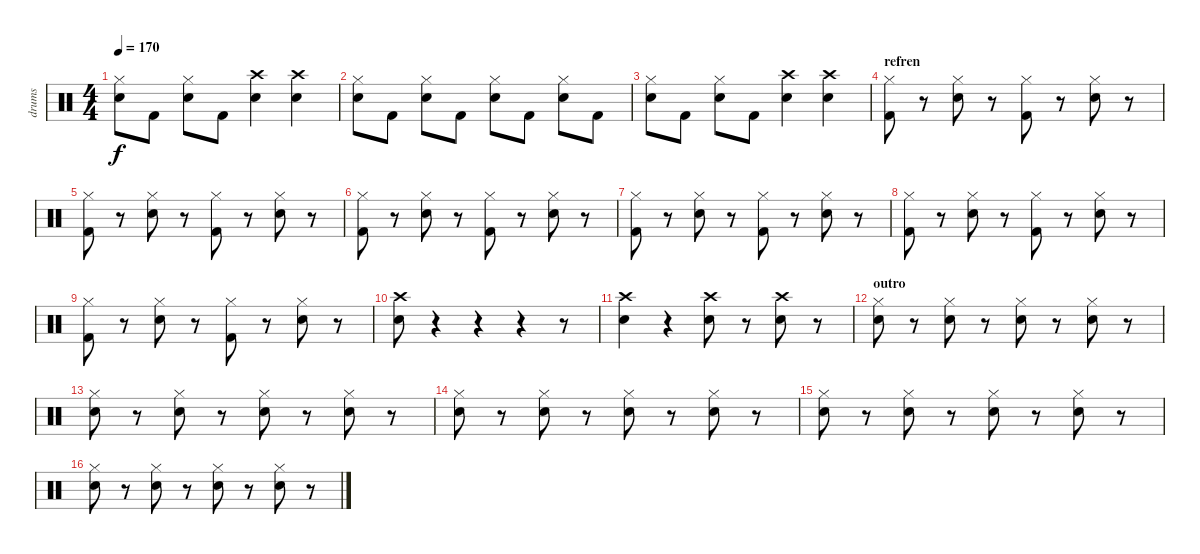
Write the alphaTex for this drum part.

\track ("drums" "drums") {instrument percussion}
\staff {score}
\articulation defaults
\ts (4 4)
\tempo 170
\clef neutral
\ks c
("Hi-Hat (closed)" "Snare (hit) 2").8{dy f} "Kick (hit) 2".8 ("Hi-Hat (closed)" "Snare (hit) 2").8 "Kick (hit) 2".8 ("Crash high (hit)" "Snare (hit) 2").4 ("Crash high (hit)" "Snare (hit) 2").4 |
("Hi-Hat (closed)" "Snare (hit) 2").8 "Kick (hit) 2".8 ("Hi-Hat (closed)" "Snare (hit) 2").8 "Kick (hit) 2".8 ("Hi-Hat (closed)" "Snare (hit) 2").8 "Kick (hit) 2".8 ("Hi-Hat (closed)" "Snare (hit) 2").8 "Kick (hit) 2".8 |
("Hi-Hat (closed)" "Snare (hit) 2").8 "Kick (hit) 2".8 ("Hi-Hat (closed)" "Snare (hit) 2").8 "Kick (hit) 2".8 ("Crash high (hit)" "Snare (hit) 2").4 ("Crash high (hit)" "Snare (hit) 2").4 |
\section ("" "refren")
("Hi-Hat (closed)" "Kick (hit) 2").8 r.8 ("Hi-Hat (closed)" "Snare (hit) 2").8 r.8 ("Hi-Hat (closed)" "Kick (hit) 2").8 r.8 ("Hi-Hat (closed)" "Snare (hit) 2").8 r.8 |
("Hi-Hat (closed)" "Kick (hit) 2").8 r.8 ("Hi-Hat (closed)" "Snare (hit) 2").8 r.8 ("Hi-Hat (closed)" "Kick (hit) 2").8 r.8 ("Hi-Hat (closed)" "Snare (hit) 2").8 r.8 |
("Hi-Hat (closed)" "Kick (hit) 2").8 r.8 ("Hi-Hat (closed)" "Snare (hit) 2").8 r.8 ("Hi-Hat (closed)" "Kick (hit) 2").8 r.8 ("Hi-Hat (closed)" "Snare (hit) 2").8 r.8 |
("Hi-Hat (closed)" "Kick (hit) 2").8 r.8 ("Hi-Hat (closed)" "Snare (hit) 2").8 r.8 ("Hi-Hat (closed)" "Kick (hit) 2").8 r.8 ("Hi-Hat (closed)" "Snare (hit) 2").8 r.8 |
("Hi-Hat (closed)" "Kick (hit) 2").8 r.8 ("Hi-Hat (closed)" "Snare (hit) 2").8 r.8 ("Hi-Hat (closed)" "Kick (hit) 2").8 r.8 ("Hi-Hat (closed)" "Snare (hit) 2").8 r.8 |
("Hi-Hat (closed)" "Kick (hit) 2").8 r.8 ("Hi-Hat (closed)" "Snare (hit) 2").8 r.8 ("Hi-Hat (closed)" "Kick (hit) 2").8 r.8 ("Hi-Hat (closed)" "Snare (hit) 2").8 r.8 |
("Crash high (hit)" "Snare (hit) 2").8 r.4 r.4 r.4 r.8 |
("Crash high (hit)" "Snare (hit) 2").4 r.4 ("Crash high (hit)" "Snare (hit) 2").8 r.8 ("Crash high (hit)" "Snare (hit) 2").8 r.8 |
\section ("" "outro")
("Hi-Hat (closed)" "Snare (hit) 2").8 r.8 ("Hi-Hat (closed)" "Snare (hit) 2").8 r.8 ("Hi-Hat (closed)" "Snare (hit) 2").8 r.8 ("Hi-Hat (closed)" "Snare (hit) 2").8 r.8 |
("Hi-Hat (closed)" "Snare (hit) 2").8 r.8 ("Hi-Hat (closed)" "Snare (hit) 2").8 r.8 ("Hi-Hat (closed)" "Snare (hit) 2").8 r.8 ("Hi-Hat (closed)" "Snare (hit) 2").8 r.8 |
("Hi-Hat (closed)" "Snare (hit) 2").8 r.8 ("Hi-Hat (closed)" "Snare (hit) 2").8 r.8 ("Hi-Hat (closed)" "Snare (hit) 2").8 r.8 ("Hi-Hat (closed)" "Snare (hit) 2").8 r.8 |
("Hi-Hat (closed)" "Snare (hit) 2").8 r.8 ("Hi-Hat (closed)" "Snare (hit) 2").8 r.8 ("Hi-Hat (closed)" "Snare (hit) 2").8 r.8 ("Hi-Hat (closed)" "Snare (hit) 2").8 r.8 |
("Hi-Hat (closed)" "Snare (hit) 2").8 r.8 ("Hi-Hat (closed)" "Snare (hit) 2").8 r.8 ("Hi-Hat (closed)" "Snare (hit) 2").8 r.8 ("Hi-Hat (closed)" "Snare (hit) 2").8 r.8
